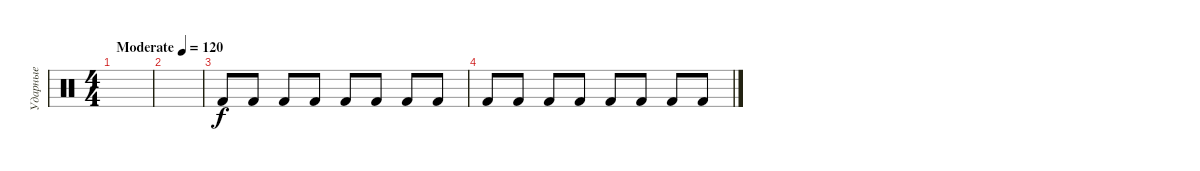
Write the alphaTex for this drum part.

\track ("Ударные" "Ударные") {instrument percussion}
\staff {score}
\articulation defaults
\ts (4 4)
\tempo (120 "Moderate")
\clef neutral
\ks c
|
|
"Kick (hit) 2".8 "Kick (hit) 2".8 "Kick (hit) 2".8 "Kick (hit) 2".8 "Kick (hit) 2".8 "Kick (hit) 2".8 "Kick (hit) 2".8 "Kick (hit) 2".8 |
"Kick (hit) 2".8 "Kick (hit) 2".8 "Kick (hit) 2".8 "Kick (hit) 2".8 "Kick (hit) 2".8 "Kick (hit) 2".8 "Kick (hit) 2".8 "Kick (hit) 2".8
